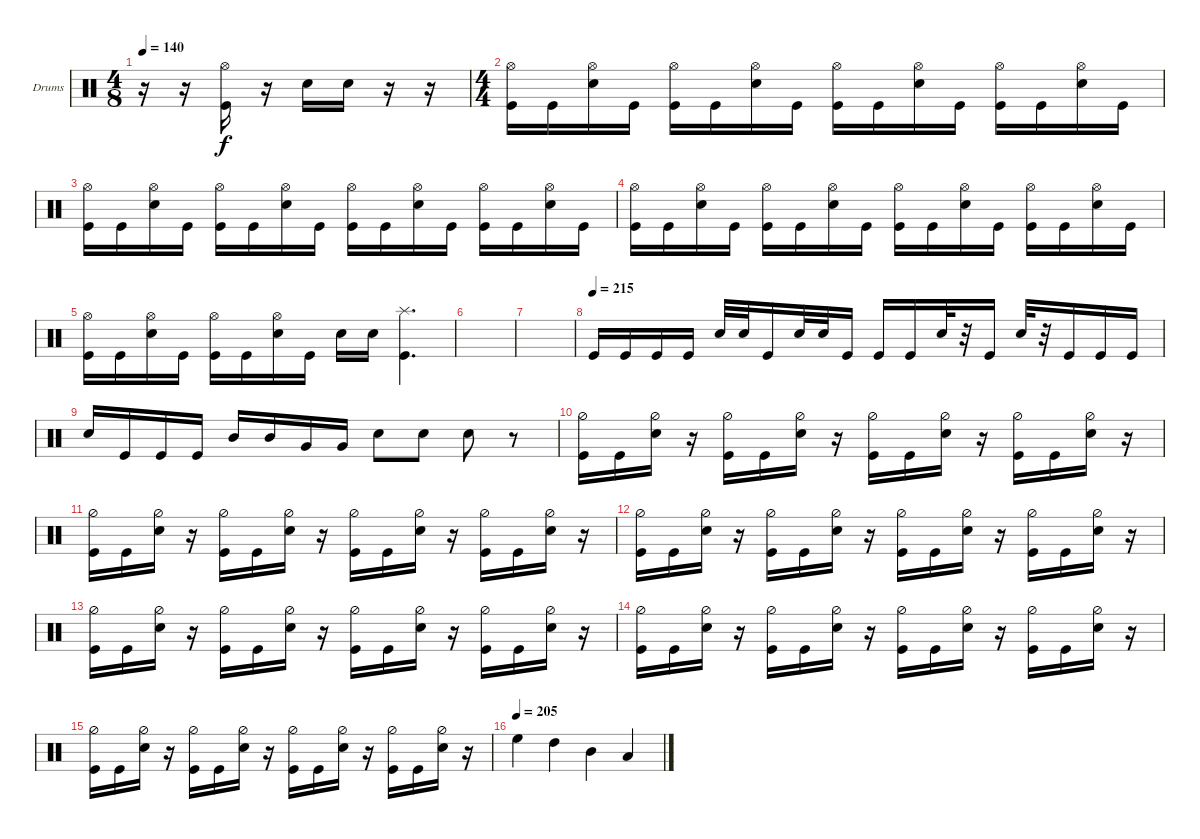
\bracketExtendMode groupsimilarinstruments
\firstSystemTrackNameOrientation horizontal
\otherSystemsTrackNameOrientation horizontal
\track ("Drumkit" "Drums") {instrument percussion}
\staff {score}
\articulation defaults
\ts (4 8)
\tempo 140
\clef neutral
\ks c
r.16{dy f} r.16 ("Kick (hit)" "Hi-Hat (open)").16 r.16 "Snare (hit) 2".16 "Snare (hit) 2".16 r.16 r.16 |
\ts (4 4)
("Kick (hit)" "Hi-Hat (open)").16 "Kick (hit)".16 ("Snare (hit) 2" "Hi-Hat (open)").16 "Kick (hit)".16 ("Kick (hit)" "Hi-Hat (open)").16 "Kick (hit)".16 ("Snare (hit) 2" "Hi-Hat (open)").16 "Kick (hit)".16 ("Kick (hit)" "Hi-Hat (open)").16 "Kick (hit)".16 ("Snare (hit) 2" "Hi-Hat (open)").16 "Kick (hit)".16 ("Kick (hit)" "Hi-Hat (open)").16 "Kick (hit)".16 ("Snare (hit) 2" "Hi-Hat (open)").16 "Kick (hit)".16 |
("Kick (hit)" "Hi-Hat (open)").16 "Kick (hit)".16 ("Snare (hit) 2" "Hi-Hat (open)").16 "Kick (hit)".16 ("Kick (hit)" "Hi-Hat (open)").16 "Kick (hit)".16 ("Snare (hit) 2" "Hi-Hat (open)").16 "Kick (hit)".16 ("Kick (hit)" "Hi-Hat (open)").16 "Kick (hit)".16 ("Snare (hit) 2" "Hi-Hat (open)").16 "Kick (hit)".16 ("Kick (hit)" "Hi-Hat (open)").16 "Kick (hit)".16 ("Snare (hit) 2" "Hi-Hat (open)").16 "Kick (hit)".16 |
("Kick (hit)" "Hi-Hat (open)").16 "Kick (hit)".16 ("Snare (hit) 2" "Hi-Hat (open)").16 "Kick (hit)".16 ("Kick (hit)" "Hi-Hat (open)").16 "Kick (hit)".16 ("Snare (hit) 2" "Hi-Hat (open)").16 "Kick (hit)".16 ("Kick (hit)" "Hi-Hat (open)").16 "Kick (hit)".16 ("Snare (hit) 2" "Hi-Hat (open)").16 "Kick (hit)".16 ("Kick (hit)" "Hi-Hat (open)").16 "Kick (hit)".16 ("Snare (hit) 2" "Hi-Hat (open)").16 "Kick (hit)".16 |
("Kick (hit)" "Hi-Hat (open)").16 "Kick (hit)".16 ("Snare (hit) 2" "Hi-Hat (open)").16 "Kick (hit)".16 ("Kick (hit)" "Hi-Hat (open)").16 "Kick (hit)".16 ("Snare (hit) 2" "Hi-Hat (open)").16 "Kick (hit)".16 "Snare (hit) 2".16 "Snare (hit) 2".16 ("Kick (hit)" "Splash (hit)").4{d} |
|
|
\tempo (215)
"Kick (hit)".16 "Kick (hit)".16 "Kick (hit)".16 "Kick (hit)".16 "Snare (hit) 2".32 "Snare (hit) 2".32 "Kick (hit)".16 "Snare (hit) 2".32 "Snare (hit) 2".32 "Kick (hit)".16 "Kick (hit)".16 "Kick (hit)".16 "Snare (hit) 2".32 r.32 "Kick (hit)".16 "Snare (hit) 2".32 r.32 "Kick (hit)".16 "Kick (hit)".16 "Kick (hit)".16 |
"Snare (hit) 2".16 "Kick (hit)".16 "Kick (hit)".16 "Kick (hit)".16 "Mid Tom (hit)".16 "Mid Tom (hit)".16 "Very Low Tom (hit)".16 "Very Low Tom (hit)".16 "Snare (hit) 2".8 "Snare (hit) 2".8 "Snare (hit) 2".8 r.8 |
("Kick (hit)" "Hi-Hat (half)").16 "Kick (hit)".16 ("Snare (hit) 2" "Hi-Hat (half)").16 r.16 ("Kick (hit)" "Hi-Hat (half)").16 "Kick (hit)".16 ("Snare (hit) 2" "Hi-Hat (half)").16 r.16 ("Kick (hit)" "Hi-Hat (half)").16 "Kick (hit)".16 ("Snare (hit) 2" "Hi-Hat (half)").16 r.16 ("Kick (hit)" "Hi-Hat (half)").16 "Kick (hit)".16 ("Snare (hit) 2" "Hi-Hat (half)").16 r.16 |
("Kick (hit)" "Hi-Hat (half)").16 "Kick (hit)".16 ("Snare (hit) 2" "Hi-Hat (half)").16 r.16 ("Kick (hit)" "Hi-Hat (half)").16 "Kick (hit)".16 ("Snare (hit) 2" "Hi-Hat (half)").16 r.16 ("Kick (hit)" "Hi-Hat (half)").16 "Kick (hit)".16 ("Snare (hit) 2" "Hi-Hat (half)").16 r.16 ("Kick (hit)" "Hi-Hat (half)").16 "Kick (hit)".16 ("Snare (hit) 2" "Hi-Hat (half)").16 r.16 |
("Kick (hit)" "Hi-Hat (half)").16 "Kick (hit)".16 ("Snare (hit) 2" "Hi-Hat (half)").16 r.16 ("Kick (hit)" "Hi-Hat (half)").16 "Kick (hit)".16 ("Snare (hit) 2" "Hi-Hat (half)").16 r.16 ("Kick (hit)" "Hi-Hat (half)").16 "Kick (hit)".16 ("Snare (hit) 2" "Hi-Hat (half)").16 r.16 ("Kick (hit)" "Hi-Hat (half)").16 "Kick (hit)".16 ("Snare (hit) 2" "Hi-Hat (half)").16 r.16 |
("Kick (hit)" "Hi-Hat (half)").16 "Kick (hit)".16 ("Snare (hit) 2" "Hi-Hat (half)").16 r.16 ("Kick (hit)" "Hi-Hat (half)").16 "Kick (hit)".16 ("Snare (hit) 2" "Hi-Hat (half)").16 r.16 ("Kick (hit)" "Hi-Hat (half)").16 "Kick (hit)".16 ("Snare (hit) 2" "Hi-Hat (half)").16 r.16 ("Kick (hit)" "Hi-Hat (half)").16 "Kick (hit)".16 ("Snare (hit) 2" "Hi-Hat (half)").16 r.16 |
("Kick (hit)" "Hi-Hat (half)").16 "Kick (hit)".16 ("Snare (hit) 2" "Hi-Hat (half)").16 r.16 ("Kick (hit)" "Hi-Hat (half)").16 "Kick (hit)".16 ("Snare (hit) 2" "Hi-Hat (half)").16 r.16 ("Kick (hit)" "Hi-Hat (half)").16 "Kick (hit)".16 ("Snare (hit) 2" "Hi-Hat (half)").16 r.16 ("Kick (hit)" "Hi-Hat (half)").16 "Kick (hit)".16 ("Snare (hit) 2" "Hi-Hat (half)").16 r.16 |
("Kick (hit)" "Hi-Hat (half)").16 "Kick (hit)".16 ("Snare (hit) 2" "Hi-Hat (half)").16 r.16 ("Kick (hit)" "Hi-Hat (half)").16 "Kick (hit)".16 ("Snare (hit) 2" "Hi-Hat (half)").16 r.16 ("Kick (hit)" "Hi-Hat (half)").16 "Kick (hit)".16 ("Snare (hit) 2" "Hi-Hat (half)").16 r.16 ("Kick (hit)" "Hi-Hat (half)").16 "Kick (hit)".16 ("Snare (hit) 2" "Hi-Hat (half)").16 r.16 |
\tempo (205)
"High Floor Tom (hit)".4 "High Tom (hit)".4 "Mid Tom (hit)".4 "Low Tom (hit)".4
